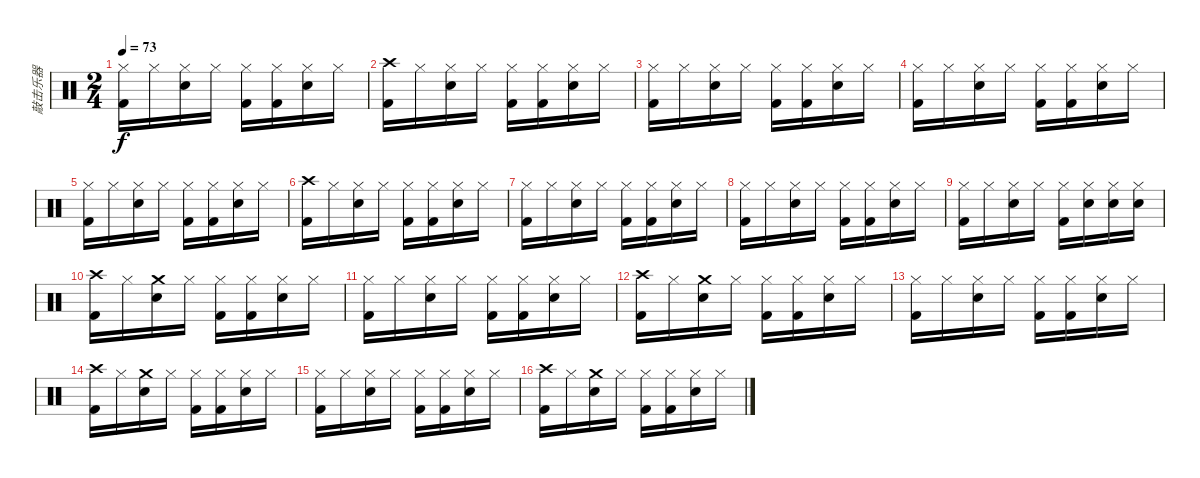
\track ("敲击乐器" "敲击乐器") {instrument percussion}
\staff {score}
\articulation defaults
\ts (2 4)
\tempo 73
\clef neutral
\ks c
("Hi-Hat (closed)" "Kick (hit) 2").16{dy f} "Hi-Hat (closed)".16 ("Hi-Hat (closed)" "Electric Snare (hit)").16 "Hi-Hat (closed)".16 ("Hi-Hat (closed)" "Kick (hit) 2").16 ("Hi-Hat (closed)" "Kick (hit) 2").16 ("Hi-Hat (closed)" "Electric Snare (hit)").16 "Hi-Hat (closed)".16 |
("Crash high (hit)" "Kick (hit) 2").16 "Hi-Hat (closed)".16 ("Hi-Hat (closed)" "Electric Snare (hit)").16 "Hi-Hat (closed)".16 ("Hi-Hat (closed)" "Kick (hit) 2").16 ("Hi-Hat (closed)" "Kick (hit) 2").16 ("Hi-Hat (closed)" "Electric Snare (hit)").16 "Hi-Hat (closed)".16 |
("Hi-Hat (closed)" "Kick (hit) 2").16 "Hi-Hat (closed)".16 ("Hi-Hat (closed)" "Electric Snare (hit)").16 "Hi-Hat (closed)".16 ("Hi-Hat (closed)" "Kick (hit) 2").16 ("Hi-Hat (closed)" "Kick (hit) 2").16 ("Hi-Hat (closed)" "Electric Snare (hit)").16 "Hi-Hat (closed)".16 |
("Hi-Hat (closed)" "Kick (hit) 2").16 "Hi-Hat (closed)".16 ("Hi-Hat (closed)" "Electric Snare (hit)").16 "Hi-Hat (closed)".16 ("Hi-Hat (closed)" "Kick (hit) 2").16 ("Hi-Hat (closed)" "Kick (hit) 2").16 ("Hi-Hat (closed)" "Electric Snare (hit)").16 "Hi-Hat (closed)".16 |
("Hi-Hat (closed)" "Kick (hit) 2").16 "Hi-Hat (closed)".16 ("Hi-Hat (closed)" "Electric Snare (hit)").16 "Hi-Hat (closed)".16 ("Hi-Hat (closed)" "Kick (hit) 2").16 ("Hi-Hat (closed)" "Kick (hit) 2").16 ("Hi-Hat (closed)" "Electric Snare (hit)").16 "Hi-Hat (closed)".16 |
("Crash high (hit)" "Kick (hit) 2").16 "Hi-Hat (closed)".16 ("Hi-Hat (closed)" "Electric Snare (hit)").16 "Hi-Hat (closed)".16 ("Hi-Hat (closed)" "Kick (hit) 2").16 ("Hi-Hat (closed)" "Kick (hit) 2").16 ("Hi-Hat (closed)" "Electric Snare (hit)").16 "Hi-Hat (closed)".16 |
("Hi-Hat (closed)" "Kick (hit) 2").16 "Hi-Hat (closed)".16 ("Hi-Hat (closed)" "Electric Snare (hit)").16 "Hi-Hat (closed)".16 ("Hi-Hat (closed)" "Kick (hit) 2").16 ("Hi-Hat (closed)" "Kick (hit) 2").16 ("Hi-Hat (closed)" "Electric Snare (hit)").16 "Hi-Hat (closed)".16 |
("Hi-Hat (closed)" "Kick (hit) 2").16 "Hi-Hat (closed)".16 ("Hi-Hat (closed)" "Electric Snare (hit)").16 "Hi-Hat (closed)".16 ("Hi-Hat (closed)" "Kick (hit) 2").16 ("Hi-Hat (closed)" "Kick (hit) 2").16 ("Hi-Hat (closed)" "Electric Snare (hit)").16 "Hi-Hat (closed)".16 |
("Hi-Hat (closed)" "Kick (hit) 2").16 "Hi-Hat (closed)".16 ("Hi-Hat (closed)" "Electric Snare (hit)").16 "Hi-Hat (closed)".16 ("Hi-Hat (closed)" "Kick (hit) 2").16 ("Hi-Hat (closed)" "Electric Snare (hit)").16 ("Hi-Hat (closed)" "Electric Snare (hit)").16 ("Hi-Hat (closed)" "Electric Snare (hit)").16 |
("Crash high (hit)" "Kick (hit) 2").16 "Hi-Hat (closed)".16 ("Crash medium (hit)" "Electric Snare (hit)").16 "Hi-Hat (closed)".16 ("Hi-Hat (closed)" "Kick (hit) 2").16 ("Hi-Hat (closed)" "Kick (hit) 2").16 ("Hi-Hat (closed)" "Electric Snare (hit)").16 "Hi-Hat (closed)".16 |
("Hi-Hat (closed)" "Kick (hit) 2").16 "Hi-Hat (closed)".16 ("Hi-Hat (closed)" "Electric Snare (hit)").16 "Hi-Hat (closed)".16 ("Hi-Hat (closed)" "Kick (hit) 2").16 ("Hi-Hat (closed)" "Kick (hit) 2").16 ("Hi-Hat (closed)" "Electric Snare (hit)").16 "Hi-Hat (closed)".16 |
("Crash high (hit)" "Kick (hit) 2").16 "Hi-Hat (closed)".16 ("Crash medium (hit)" "Electric Snare (hit)").16 "Hi-Hat (closed)".16 ("Hi-Hat (closed)" "Kick (hit) 2").16 ("Hi-Hat (closed)" "Kick (hit) 2").16 ("Hi-Hat (closed)" "Electric Snare (hit)").16 "Hi-Hat (closed)".16 |
("Hi-Hat (closed)" "Kick (hit) 2").16 "Hi-Hat (closed)".16 ("Hi-Hat (closed)" "Electric Snare (hit)").16 "Hi-Hat (closed)".16 ("Hi-Hat (closed)" "Kick (hit) 2").16 ("Hi-Hat (closed)" "Kick (hit) 2").16 ("Hi-Hat (closed)" "Electric Snare (hit)").16 "Hi-Hat (closed)".16 |
("Crash high (hit)" "Kick (hit) 2").16 "Hi-Hat (closed)".16 ("Crash medium (hit)" "Electric Snare (hit)").16 "Hi-Hat (closed)".16 ("Hi-Hat (closed)" "Kick (hit) 2").16 ("Hi-Hat (closed)" "Kick (hit) 2").16 ("Hi-Hat (closed)" "Electric Snare (hit)").16 "Hi-Hat (closed)".16 |
("Hi-Hat (closed)" "Kick (hit) 2").16 "Hi-Hat (closed)".16 ("Hi-Hat (closed)" "Electric Snare (hit)").16 "Hi-Hat (closed)".16 ("Hi-Hat (closed)" "Kick (hit) 2").16 ("Hi-Hat (closed)" "Kick (hit) 2").16 ("Hi-Hat (closed)" "Electric Snare (hit)").16 "Hi-Hat (closed)".16 |
("Crash high (hit)" "Kick (hit) 2").16 "Hi-Hat (closed)".16 ("Crash medium (hit)" "Electric Snare (hit)").16 "Hi-Hat (closed)".16 ("Hi-Hat (closed)" "Kick (hit) 2").16 ("Hi-Hat (closed)" "Kick (hit) 2").16 ("Hi-Hat (closed)" "Electric Snare (hit)").16 "Hi-Hat (closed)".16
